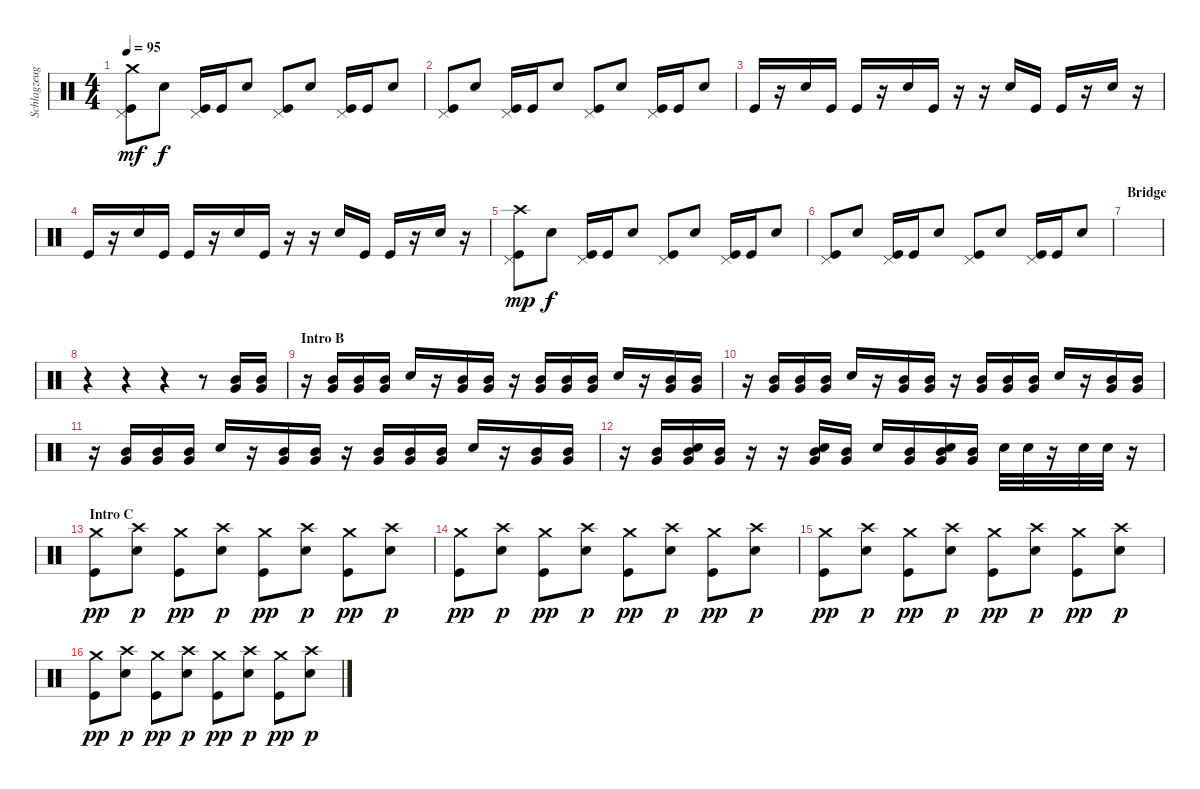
\track ("Schlagzeug" "Schlagzeug") {instrument percussion}
\staff {score}
\articulation defaults
\ts (4 4)
\tempo 95
\clef neutral
\ks c
("Pedal Hi-Hat (hit)" "Kick (hit)" "Crash medium (hit)").8{dy mf} "Snare (hit) 2".8{dy f} ("Pedal Hi-Hat (hit)" "Kick (hit)").16 "Kick (hit)".16 "Snare (hit) 2".8 ("Pedal Hi-Hat (hit)" "Kick (hit)").8 "Snare (hit) 2".8 ("Pedal Hi-Hat (hit)" "Kick (hit)").16 "Kick (hit)".16 "Snare (hit) 2".8 |
("Pedal Hi-Hat (hit)" "Kick (hit)").8 "Snare (hit) 2".8 ("Pedal Hi-Hat (hit)" "Kick (hit)").16 "Kick (hit)".16 "Snare (hit) 2".8 ("Pedal Hi-Hat (hit)" "Kick (hit)").8 "Snare (hit) 2".8 ("Pedal Hi-Hat (hit)" "Kick (hit)").16 "Kick (hit)".16 "Snare (hit) 2".8 |
"Kick (hit)".16 r.16 "Snare (hit) 2".16 "Kick (hit)".16 "Kick (hit)".16 r.16 "Snare (hit) 2".16 "Kick (hit)".16 r.16 r.16 "Snare (hit) 2".16 "Kick (hit)".16 "Kick (hit)".16 r.16 "Snare (hit) 2".16 r.16 |
"Kick (hit)".16 r.16 "Snare (hit) 2".16 "Kick (hit)".16 "Kick (hit)".16 r.16 "Snare (hit) 2".16 "Kick (hit)".16 r.16 r.16 "Snare (hit) 2".16 "Kick (hit)".16 "Kick (hit)".16 r.16 "Snare (hit) 2".16 r.16 |
("Pedal Hi-Hat (hit)" "Kick (hit)" "Crash high (hit)").8{dy mp} "Snare (hit) 2".8{dy f} ("Pedal Hi-Hat (hit)" "Kick (hit)").16 "Kick (hit)".16 "Snare (hit) 2".8 ("Pedal Hi-Hat (hit)" "Kick (hit)").8 "Snare (hit) 2".8 ("Pedal Hi-Hat (hit)" "Kick (hit)").16 "Kick (hit)".16 "Snare (hit) 2".8 |
("Pedal Hi-Hat (hit)" "Kick (hit)").8 "Snare (hit) 2".8 ("Pedal Hi-Hat (hit)" "Kick (hit)").16 "Kick (hit)".16 "Snare (hit) 2".8 ("Pedal Hi-Hat (hit)" "Kick (hit)").8 "Snare (hit) 2".8 ("Pedal Hi-Hat (hit)" "Kick (hit)").16 "Kick (hit)".16 "Snare (hit) 2".8 |
\section ("" "Bridge")
|
r.4 r.4 r.4 r.8 ("Mid Tom (hit)" "Very Low Tom (hit)").16 ("Mid Tom (hit)" "Very Low Tom (hit)").16 |
\section ("" "Intro B")
r.16 ("Mid Tom (hit)" "Very Low Tom (hit)").16 ("Mid Tom (hit)" "Very Low Tom (hit)").16 ("Mid Tom (hit)" "Very Low Tom (hit)").16 "Snare (hit) 2".16 r.16 ("Mid Tom (hit)" "Very Low Tom (hit)").16 ("Mid Tom (hit)" "Very Low Tom (hit)").16 r.16 ("Mid Tom (hit)" "Very Low Tom (hit)").16 ("Mid Tom (hit)" "Very Low Tom (hit)").16 ("Mid Tom (hit)" "Very Low Tom (hit)").16 "Snare (hit) 2".16 r.16 ("Mid Tom (hit)" "Very Low Tom (hit)").16 ("Mid Tom (hit)" "Very Low Tom (hit)").16 |
r.16 ("Mid Tom (hit)" "Very Low Tom (hit)").16 ("Mid Tom (hit)" "Very Low Tom (hit)").16 ("Mid Tom (hit)" "Very Low Tom (hit)").16 "Snare (hit) 2".16 r.16 ("Mid Tom (hit)" "Very Low Tom (hit)").16 ("Mid Tom (hit)" "Very Low Tom (hit)").16 r.16 ("Mid Tom (hit)" "Very Low Tom (hit)").16 ("Mid Tom (hit)" "Very Low Tom (hit)").16 ("Mid Tom (hit)" "Very Low Tom (hit)").16 "Snare (hit) 2".16 r.16 ("Mid Tom (hit)" "Very Low Tom (hit)").16 ("Mid Tom (hit)" "Very Low Tom (hit)").16 |
r.16 ("Mid Tom (hit)" "Very Low Tom (hit)").16 ("Mid Tom (hit)" "Very Low Tom (hit)").16 ("Mid Tom (hit)" "Very Low Tom (hit)").16 "Snare (hit) 2".16 r.16 ("Mid Tom (hit)" "Very Low Tom (hit)").16 ("Mid Tom (hit)" "Very Low Tom (hit)").16 r.16 ("Mid Tom (hit)" "Very Low Tom (hit)").16 ("Mid Tom (hit)" "Very Low Tom (hit)").16 ("Mid Tom (hit)" "Very Low Tom (hit)").16 "Snare (hit) 2".16 r.16 ("Mid Tom (hit)" "Very Low Tom (hit)").16 ("Mid Tom (hit)" "Very Low Tom (hit)").16 |
r.16 ("Mid Tom (hit)" "Very Low Tom (hit)").16 ("Mid Tom (hit)" "Very Low Tom (hit)" "Snare (hit) 2").16 ("Mid Tom (hit)" "Very Low Tom (hit)").16 r.16 r.16 ("Mid Tom (hit)" "Very Low Tom (hit)" "Snare (hit) 2").16 ("Mid Tom (hit)" "Very Low Tom (hit)").16 "Snare (hit) 2".16 ("Mid Tom (hit)" "Very Low Tom (hit)").16 ("Mid Tom (hit)" "Very Low Tom (hit)" "Snare (hit) 2").16 ("Mid Tom (hit)" "Very Low Tom (hit)").16 "Snare (hit) 2".32 "Snare (hit) 2".32 r.16 "Snare (hit) 2".32 "Snare (hit) 2".32 r.16 |
\section ("" "Intro C")
("Crash medium (hit)" "Kick (hit)").8{dy pp} ("Crash high (hit)" "Snare (hit) 2").8{dy p} ("Crash medium (hit)" "Kick (hit)").8{dy pp} ("Crash high (hit)" "Snare (hit) 2").8{dy p} ("Crash medium (hit)" "Kick (hit)").8{dy pp} ("Crash high (hit)" "Snare (hit) 2").8{dy p} ("Crash medium (hit)" "Kick (hit)").8{dy pp} ("Crash high (hit)" "Snare (hit) 2").8{dy p} |
("Crash medium (hit)" "Kick (hit)").8{dy pp} ("Crash high (hit)" "Snare (hit) 2").8{dy p} ("Crash medium (hit)" "Kick (hit)").8{dy pp} ("Crash high (hit)" "Snare (hit) 2").8{dy p} ("Crash medium (hit)" "Kick (hit)").8{dy pp} ("Crash high (hit)" "Snare (hit) 2").8{dy p} ("Crash medium (hit)" "Kick (hit)").8{dy pp} ("Crash high (hit)" "Snare (hit) 2").8{dy p} |
("Crash medium (hit)" "Kick (hit)").8{dy pp} ("Crash high (hit)" "Snare (hit) 2").8{dy p} ("Crash medium (hit)" "Kick (hit)").8{dy pp} ("Crash high (hit)" "Snare (hit) 2").8{dy p} ("Crash medium (hit)" "Kick (hit)").8{dy pp} ("Crash high (hit)" "Snare (hit) 2").8{dy p} ("Crash medium (hit)" "Kick (hit)").8{dy pp} ("Crash high (hit)" "Snare (hit) 2").8{dy p} |
("Crash medium (hit)" "Kick (hit)").8{dy pp} ("Crash high (hit)" "Snare (hit) 2").8{dy p} ("Crash medium (hit)" "Kick (hit)").8{dy pp} ("Crash high (hit)" "Snare (hit) 2").8{dy p} ("Crash medium (hit)" "Kick (hit)").8{dy pp} ("Crash high (hit)" "Snare (hit) 2").8{dy p} ("Crash medium (hit)" "Kick (hit)").8{dy pp} ("Crash high (hit)" "Snare (hit) 2").8{dy p}
